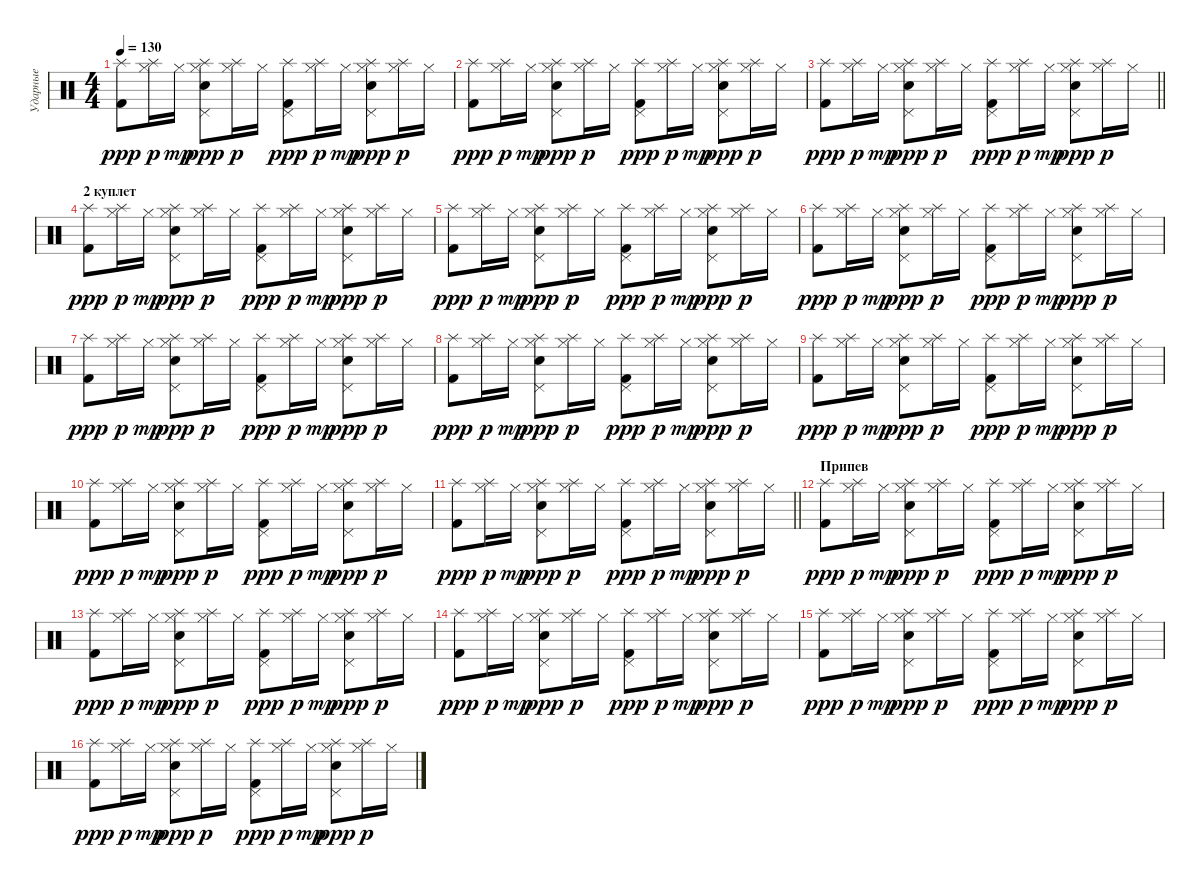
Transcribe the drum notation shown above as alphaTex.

\track ("Ударные" "Ударные") {instrument percussion bank 17}
\staff {score}
\articulation defaults
\ts (4 4)
\tempo 130
\clef neutral
\ks c
("Kick (hit) 2" "Splash (hit)").8{dy ppp} ("Hi-Hat (closed)" "Splash (hit)").16{dy p} "Hi-Hat (closed)".16{dy mp} ("Snare (hit) 2" "Pedal Hi-Hat (hit)" "Hi-Hat (closed)" "Splash (hit)").8{dy ppp} ("Hi-Hat (closed)" "Splash (hit)").16{dy p} "Hi-Hat (closed)".16 ("Kick (hit) 2" "Pedal Hi-Hat (hit)" "Splash (hit)").8{dy ppp} ("Hi-Hat (closed)" "Splash (hit)").16{dy p} "Hi-Hat (closed)".16{dy mp} ("Snare (hit) 2" "Pedal Hi-Hat (hit)" "Hi-Hat (closed)" "Splash (hit)").8{dy ppp} ("Hi-Hat (closed)" "Splash (hit)").16{dy p} "Hi-Hat (closed)".16 |
("Kick (hit) 2" "Splash (hit)").8{dy ppp} ("Hi-Hat (closed)" "Splash (hit)").16{dy p} "Hi-Hat (closed)".16{dy mp} ("Snare (hit) 2" "Pedal Hi-Hat (hit)" "Hi-Hat (closed)" "Splash (hit)").8{dy ppp} ("Hi-Hat (closed)" "Splash (hit)").16{dy p} "Hi-Hat (closed)".16 ("Kick (hit) 2" "Pedal Hi-Hat (hit)" "Splash (hit)").8{dy ppp} ("Hi-Hat (closed)" "Splash (hit)").16{dy p} "Hi-Hat (closed)".16{dy mp} ("Snare (hit) 2" "Pedal Hi-Hat (hit)" "Hi-Hat (closed)" "Splash (hit)").8{dy ppp} ("Hi-Hat (closed)" "Splash (hit)").16{dy p} "Hi-Hat (closed)".16 |
\barLineRight lightlight
("Kick (hit) 2" "Splash (hit)").8{dy ppp} ("Hi-Hat (closed)" "Splash (hit)").16{dy p} "Hi-Hat (closed)".16{dy mp} ("Snare (hit) 2" "Pedal Hi-Hat (hit)" "Hi-Hat (closed)" "Splash (hit)").8{dy ppp} ("Hi-Hat (closed)" "Splash (hit)").16{dy p} "Hi-Hat (closed)".16 ("Kick (hit) 2" "Pedal Hi-Hat (hit)" "Splash (hit)").8{dy ppp} ("Hi-Hat (closed)" "Splash (hit)").16{dy p} "Hi-Hat (closed)".16{dy mp} ("Snare (hit) 2" "Pedal Hi-Hat (hit)" "Hi-Hat (closed)" "Splash (hit)").8{dy ppp} ("Hi-Hat (closed)" "Splash (hit)").16{dy p} "Hi-Hat (closed)".16 |
\section ("" "2 куплет")
("Kick (hit) 2" "Splash (hit)").8{dy ppp} ("Hi-Hat (closed)" "Splash (hit)").16{dy p} "Hi-Hat (closed)".16{dy mp} ("Snare (hit) 2" "Pedal Hi-Hat (hit)" "Hi-Hat (closed)" "Splash (hit)").8{dy ppp} ("Hi-Hat (closed)" "Splash (hit)").16{dy p} "Hi-Hat (closed)".16 ("Kick (hit) 2" "Pedal Hi-Hat (hit)" "Splash (hit)").8{dy ppp} ("Hi-Hat (closed)" "Splash (hit)").16{dy p} "Hi-Hat (closed)".16{dy mp} ("Snare (hit) 2" "Pedal Hi-Hat (hit)" "Hi-Hat (closed)" "Splash (hit)").8{dy ppp} ("Hi-Hat (closed)" "Splash (hit)").16{dy p} "Hi-Hat (closed)".16 |
("Kick (hit) 2" "Splash (hit)").8{dy ppp} ("Hi-Hat (closed)" "Splash (hit)").16{dy p} "Hi-Hat (closed)".16{dy mp} ("Snare (hit) 2" "Pedal Hi-Hat (hit)" "Hi-Hat (closed)" "Splash (hit)").8{dy ppp} ("Hi-Hat (closed)" "Splash (hit)").16{dy p} "Hi-Hat (closed)".16 ("Kick (hit) 2" "Pedal Hi-Hat (hit)" "Splash (hit)").8{dy ppp} ("Hi-Hat (closed)" "Splash (hit)").16{dy p} "Hi-Hat (closed)".16{dy mp} ("Snare (hit) 2" "Pedal Hi-Hat (hit)" "Hi-Hat (closed)" "Splash (hit)").8{dy ppp} ("Hi-Hat (closed)" "Splash (hit)").16{dy p} "Hi-Hat (closed)".16 |
("Kick (hit) 2" "Splash (hit)").8{dy ppp} ("Hi-Hat (closed)" "Splash (hit)").16{dy p} "Hi-Hat (closed)".16{dy mp} ("Snare (hit) 2" "Pedal Hi-Hat (hit)" "Hi-Hat (closed)" "Splash (hit)").8{dy ppp} ("Hi-Hat (closed)" "Splash (hit)").16{dy p} "Hi-Hat (closed)".16 ("Kick (hit) 2" "Pedal Hi-Hat (hit)" "Splash (hit)").8{dy ppp} ("Hi-Hat (closed)" "Splash (hit)").16{dy p} "Hi-Hat (closed)".16{dy mp} ("Snare (hit) 2" "Pedal Hi-Hat (hit)" "Hi-Hat (closed)" "Splash (hit)").8{dy ppp} ("Hi-Hat (closed)" "Splash (hit)").16{dy p} "Hi-Hat (closed)".16 |
("Kick (hit) 2" "Splash (hit)").8{dy ppp} ("Hi-Hat (closed)" "Splash (hit)").16{dy p} "Hi-Hat (closed)".16{dy mp} ("Snare (hit) 2" "Pedal Hi-Hat (hit)" "Hi-Hat (closed)" "Splash (hit)").8{dy ppp} ("Hi-Hat (closed)" "Splash (hit)").16{dy p} "Hi-Hat (closed)".16 ("Kick (hit) 2" "Pedal Hi-Hat (hit)" "Splash (hit)").8{dy ppp} ("Hi-Hat (closed)" "Splash (hit)").16{dy p} "Hi-Hat (closed)".16{dy mp} ("Snare (hit) 2" "Pedal Hi-Hat (hit)" "Hi-Hat (closed)" "Splash (hit)").8{dy ppp} ("Hi-Hat (closed)" "Splash (hit)").16{dy p} "Hi-Hat (closed)".16 |
("Kick (hit) 2" "Splash (hit)").8{dy ppp} ("Hi-Hat (closed)" "Splash (hit)").16{dy p} "Hi-Hat (closed)".16{dy mp} ("Snare (hit) 2" "Pedal Hi-Hat (hit)" "Hi-Hat (closed)" "Splash (hit)").8{dy ppp} ("Hi-Hat (closed)" "Splash (hit)").16{dy p} "Hi-Hat (closed)".16 ("Kick (hit) 2" "Pedal Hi-Hat (hit)" "Splash (hit)").8{dy ppp} ("Hi-Hat (closed)" "Splash (hit)").16{dy p} "Hi-Hat (closed)".16{dy mp} ("Snare (hit) 2" "Pedal Hi-Hat (hit)" "Hi-Hat (closed)" "Splash (hit)").8{dy ppp} ("Hi-Hat (closed)" "Splash (hit)").16{dy p} "Hi-Hat (closed)".16 |
("Kick (hit) 2" "Splash (hit)").8{dy ppp} ("Hi-Hat (closed)" "Splash (hit)").16{dy p} "Hi-Hat (closed)".16{dy mp} ("Snare (hit) 2" "Pedal Hi-Hat (hit)" "Hi-Hat (closed)" "Splash (hit)").8{dy ppp} ("Hi-Hat (closed)" "Splash (hit)").16{dy p} "Hi-Hat (closed)".16 ("Kick (hit) 2" "Pedal Hi-Hat (hit)" "Splash (hit)").8{dy ppp} ("Hi-Hat (closed)" "Splash (hit)").16{dy p} "Hi-Hat (closed)".16{dy mp} ("Snare (hit) 2" "Pedal Hi-Hat (hit)" "Hi-Hat (closed)" "Splash (hit)").8{dy ppp} ("Hi-Hat (closed)" "Splash (hit)").16{dy p} "Hi-Hat (closed)".16 |
("Kick (hit) 2" "Splash (hit)").8{dy ppp} ("Hi-Hat (closed)" "Splash (hit)").16{dy p} "Hi-Hat (closed)".16{dy mp} ("Snare (hit) 2" "Pedal Hi-Hat (hit)" "Hi-Hat (closed)" "Splash (hit)").8{dy ppp} ("Hi-Hat (closed)" "Splash (hit)").16{dy p} "Hi-Hat (closed)".16 ("Kick (hit) 2" "Pedal Hi-Hat (hit)" "Splash (hit)").8{dy ppp} ("Hi-Hat (closed)" "Splash (hit)").16{dy p} "Hi-Hat (closed)".16{dy mp} ("Snare (hit) 2" "Pedal Hi-Hat (hit)" "Hi-Hat (closed)" "Splash (hit)").8{dy ppp} ("Hi-Hat (closed)" "Splash (hit)").16{dy p} "Hi-Hat (closed)".16 |
\barLineRight lightlight
("Kick (hit) 2" "Splash (hit)").8{dy ppp} ("Hi-Hat (closed)" "Splash (hit)").16{dy p} "Hi-Hat (closed)".16{dy mp} ("Snare (hit) 2" "Pedal Hi-Hat (hit)" "Hi-Hat (closed)" "Splash (hit)").8{dy ppp} ("Hi-Hat (closed)" "Splash (hit)").16{dy p} "Hi-Hat (closed)".16 ("Kick (hit) 2" "Pedal Hi-Hat (hit)" "Splash (hit)").8{dy ppp} ("Hi-Hat (closed)" "Splash (hit)").16{dy p} "Hi-Hat (closed)".16{dy mp} ("Snare (hit) 2" "Pedal Hi-Hat (hit)" "Hi-Hat (closed)" "Splash (hit)").8{dy ppp} ("Hi-Hat (closed)" "Splash (hit)").16{dy p} "Hi-Hat (closed)".16 |
\section ("" "Припев")
("Kick (hit) 2" "Splash (hit)").8{dy ppp} ("Hi-Hat (closed)" "Splash (hit)").16{dy p} "Hi-Hat (closed)".16{dy mp} ("Snare (hit) 2" "Pedal Hi-Hat (hit)" "Hi-Hat (closed)" "Splash (hit)").8{dy ppp} ("Hi-Hat (closed)" "Splash (hit)").16{dy p} "Hi-Hat (closed)".16 ("Kick (hit) 2" "Pedal Hi-Hat (hit)" "Splash (hit)").8{dy ppp} ("Hi-Hat (closed)" "Splash (hit)").16{dy p} "Hi-Hat (closed)".16{dy mp} ("Snare (hit) 2" "Pedal Hi-Hat (hit)" "Hi-Hat (closed)" "Splash (hit)").8{dy ppp} ("Hi-Hat (closed)" "Splash (hit)").16{dy p} "Hi-Hat (closed)".16 |
("Kick (hit) 2" "Splash (hit)").8{dy ppp} ("Hi-Hat (closed)" "Splash (hit)").16{dy p} "Hi-Hat (closed)".16{dy mp} ("Snare (hit) 2" "Pedal Hi-Hat (hit)" "Hi-Hat (closed)" "Splash (hit)").8{dy ppp} ("Hi-Hat (closed)" "Splash (hit)").16{dy p} "Hi-Hat (closed)".16 ("Kick (hit) 2" "Pedal Hi-Hat (hit)" "Splash (hit)").8{dy ppp} ("Hi-Hat (closed)" "Splash (hit)").16{dy p} "Hi-Hat (closed)".16{dy mp} ("Snare (hit) 2" "Pedal Hi-Hat (hit)" "Hi-Hat (closed)" "Splash (hit)").8{dy ppp} ("Hi-Hat (closed)" "Splash (hit)").16{dy p} "Hi-Hat (closed)".16 |
("Kick (hit) 2" "Splash (hit)").8{dy ppp} ("Hi-Hat (closed)" "Splash (hit)").16{dy p} "Hi-Hat (closed)".16{dy mp} ("Snare (hit) 2" "Pedal Hi-Hat (hit)" "Hi-Hat (closed)" "Splash (hit)").8{dy ppp} ("Hi-Hat (closed)" "Splash (hit)").16{dy p} "Hi-Hat (closed)".16 ("Kick (hit) 2" "Pedal Hi-Hat (hit)" "Splash (hit)").8{dy ppp} ("Hi-Hat (closed)" "Splash (hit)").16{dy p} "Hi-Hat (closed)".16{dy mp} ("Snare (hit) 2" "Pedal Hi-Hat (hit)" "Hi-Hat (closed)" "Splash (hit)").8{dy ppp} ("Hi-Hat (closed)" "Splash (hit)").16{dy p} "Hi-Hat (closed)".16 |
("Kick (hit) 2" "Splash (hit)").8{dy ppp} ("Hi-Hat (closed)" "Splash (hit)").16{dy p} "Hi-Hat (closed)".16{dy mp} ("Snare (hit) 2" "Pedal Hi-Hat (hit)" "Hi-Hat (closed)" "Splash (hit)").8{dy ppp} ("Hi-Hat (closed)" "Splash (hit)").16{dy p} "Hi-Hat (closed)".16 ("Kick (hit) 2" "Pedal Hi-Hat (hit)" "Splash (hit)").8{dy ppp} ("Hi-Hat (closed)" "Splash (hit)").16{dy p} "Hi-Hat (closed)".16{dy mp} ("Snare (hit) 2" "Pedal Hi-Hat (hit)" "Hi-Hat (closed)" "Splash (hit)").8{dy ppp} ("Hi-Hat (closed)" "Splash (hit)").16{dy p} "Hi-Hat (closed)".16 |
("Kick (hit) 2" "Splash (hit)").8{dy ppp} ("Hi-Hat (closed)" "Splash (hit)").16{dy p} "Hi-Hat (closed)".16{dy mp} ("Snare (hit) 2" "Pedal Hi-Hat (hit)" "Hi-Hat (closed)" "Splash (hit)").8{dy ppp} ("Hi-Hat (closed)" "Splash (hit)").16{dy p} "Hi-Hat (closed)".16 ("Kick (hit) 2" "Pedal Hi-Hat (hit)" "Splash (hit)").8{dy ppp} ("Hi-Hat (closed)" "Splash (hit)").16{dy p} "Hi-Hat (closed)".16{dy mp} ("Snare (hit) 2" "Pedal Hi-Hat (hit)" "Hi-Hat (closed)" "Splash (hit)").8{dy ppp} ("Hi-Hat (closed)" "Splash (hit)").16{dy p} "Hi-Hat (closed)".16
